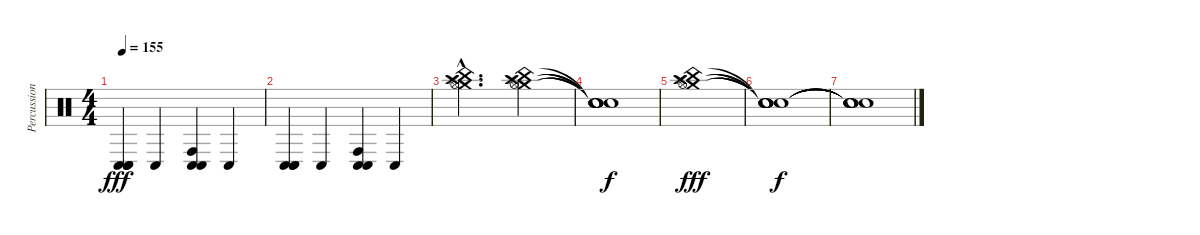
\track ("Percussion" "Percussion") {instrument percussion}
\staff {score}
\articulation defaults
\ts (4 4)
\tempo 155
\clef neutral
\ks c
("Conga low (hit)" "Conga low (hit)" "Conga low (hit)").4{dy fff} "Conga low (hit)".4 ("Conga high (hit)" "Conga low (hit)" "Conga low (hit)").4 "Conga low (hit)".4 |
("Conga low (hit)" "Conga low (hit)" "Conga low (hit)").4 "Conga low (hit)".4 ("Conga high (hit)" "Conga low (hit)" "Conga low (hit)").4 "Conga low (hit)".4 |
("Crash medium (hit)"{hac} "China (hit)"{hac} "Hi-Hat (open)"{hac} "Crash high (hit)"{hac} "Splash (hit)"{hac}).2{d} ("Crash medium (hit)" "China (hit)" "Hi-Hat (open)" "Crash high (hit)" "Splash (hit)").4 |
("Snare (hit)"{t} "Snare (hit)"{t} "Snare (hit)"{t} "Snare (hit)"{t} "Snare (hit)"{t}).1{dy f} |
("Crash medium (hit)" "China (hit)" "Hi-Hat (open)" "Crash high (hit)" "Splash (hit)").1{dy fff} |
("Snare (hit)"{t} "Snare (hit)"{t} "Snare (hit)"{t} "Snare (hit)"{t} "Snare (hit)"{t}).1{dy f} |
("Snare (hit)"{t} "Snare (hit)"{t} "Snare (hit)"{t} "Snare (hit)"{t} "Snare (hit)"{t}).1
